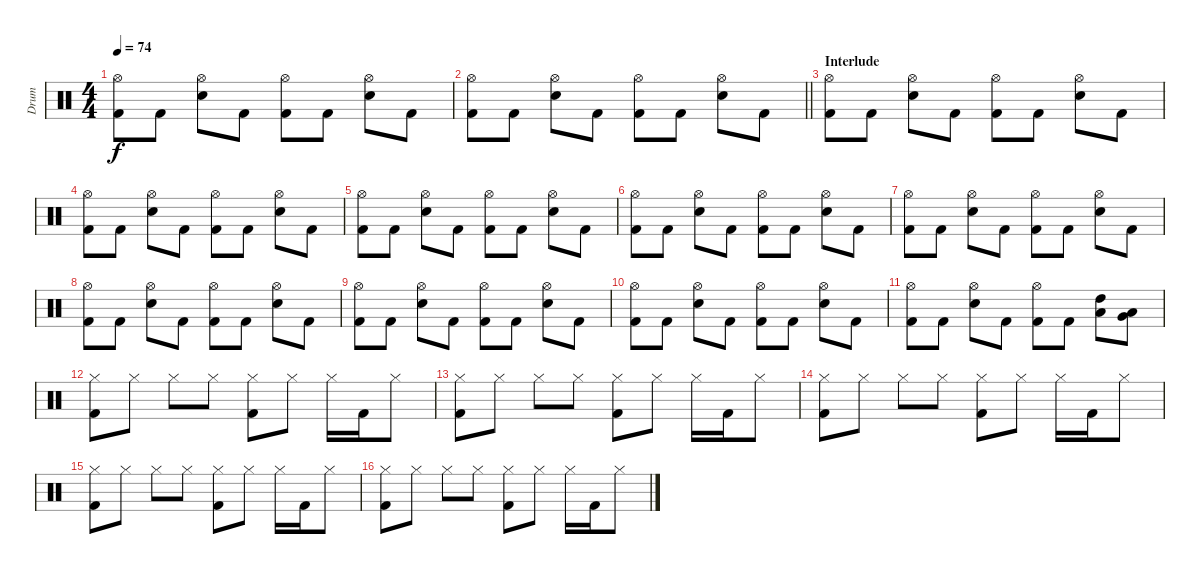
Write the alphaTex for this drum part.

\track ("Drum" "Drum") {instrument percussion}
\staff {score}
\articulation defaults
\ts (4 4)
\tempo 74
\clef neutral
\ks c
("Hi-Hat (open)" "Kick (hit) 2").8{dy f} "Kick (hit) 2".8 ("Snare (hit) 2" "Hi-Hat (open)").8 "Kick (hit) 2".8 ("Kick (hit) 2" "Hi-Hat (open)").8 "Kick (hit) 2".8 ("Snare (hit) 2" "Hi-Hat (open)").8 "Kick (hit) 2".8 |
\barLineRight lightlight
("Hi-Hat (open)" "Kick (hit) 2").8 "Kick (hit) 2".8 ("Snare (hit) 2" "Hi-Hat (open)").8 "Kick (hit) 2".8 ("Kick (hit) 2" "Hi-Hat (open)").8 "Kick (hit) 2".8 ("Snare (hit) 2" "Hi-Hat (open)").8 "Kick (hit) 2".8 |
\section ("" "Interlude")
("Hi-Hat (open)" "Kick (hit) 2").8 "Kick (hit) 2".8 ("Snare (hit) 2" "Hi-Hat (open)").8 "Kick (hit) 2".8 ("Kick (hit) 2" "Hi-Hat (open)").8 "Kick (hit) 2".8 ("Snare (hit) 2" "Hi-Hat (open)").8 "Kick (hit) 2".8 |
("Hi-Hat (open)" "Kick (hit) 2").8 "Kick (hit) 2".8 ("Snare (hit) 2" "Hi-Hat (open)").8 "Kick (hit) 2".8 ("Kick (hit) 2" "Hi-Hat (open)").8 "Kick (hit) 2".8 ("Snare (hit) 2" "Hi-Hat (open)").8 "Kick (hit) 2".8 |
("Hi-Hat (open)" "Kick (hit) 2").8 "Kick (hit) 2".8 ("Snare (hit) 2" "Hi-Hat (open)").8 "Kick (hit) 2".8 ("Kick (hit) 2" "Hi-Hat (open)").8 "Kick (hit) 2".8 ("Snare (hit) 2" "Hi-Hat (open)").8 "Kick (hit) 2".8 |
("Hi-Hat (open)" "Kick (hit) 2").8 "Kick (hit) 2".8 ("Snare (hit) 2" "Hi-Hat (open)").8 "Kick (hit) 2".8 ("Kick (hit) 2" "Hi-Hat (open)").8 "Kick (hit) 2".8 ("Snare (hit) 2" "Hi-Hat (open)").8 "Kick (hit) 2".8 |
("Hi-Hat (open)" "Kick (hit) 2").8 "Kick (hit) 2".8 ("Snare (hit) 2" "Hi-Hat (open)").8 "Kick (hit) 2".8 ("Kick (hit) 2" "Hi-Hat (open)").8 "Kick (hit) 2".8 ("Snare (hit) 2" "Hi-Hat (open)").8 "Kick (hit) 2".8 |
("Hi-Hat (open)" "Kick (hit) 2").8 "Kick (hit) 2".8 ("Snare (hit) 2" "Hi-Hat (open)").8 "Kick (hit) 2".8 ("Kick (hit) 2" "Hi-Hat (open)").8 "Kick (hit) 2".8 ("Snare (hit) 2" "Hi-Hat (open)").8 "Kick (hit) 2".8 |
("Hi-Hat (open)" "Kick (hit) 2").8 "Kick (hit) 2".8 ("Snare (hit) 2" "Hi-Hat (open)").8 "Kick (hit) 2".8 ("Kick (hit) 2" "Hi-Hat (open)").8 "Kick (hit) 2".8 ("Snare (hit) 2" "Hi-Hat (open)").8 "Kick (hit) 2".8 |
("Hi-Hat (open)" "Kick (hit) 2").8 "Kick (hit) 2".8 ("Snare (hit) 2" "Hi-Hat (open)").8 "Kick (hit) 2".8 ("Kick (hit) 2" "Hi-Hat (open)").8 "Kick (hit) 2".8 ("Snare (hit) 2" "Hi-Hat (open)").8 "Kick (hit) 2".8 |
("Hi-Hat (open)" "Kick (hit) 2").8 "Kick (hit) 2".8 ("Snare (hit) 2" "Hi-Hat (open)").8 "Kick (hit) 2".8 ("Kick (hit) 2" "Hi-Hat (open)").8 "Kick (hit) 2".8 ("High Tom (hit)" "Low Tom (hit)").8 ("Very Low Tom (hit)" "Low Tom (hit)").8 |
("Kick (hit) 2" "Hi-Hat (closed)").8 "Hi-Hat (closed)".8 "Hi-Hat (closed)".8 "Hi-Hat (closed)".8 ("Hi-Hat (closed)" "Kick (hit) 2").8 "Hi-Hat (closed)".8 "Hi-Hat (closed)".16 "Kick (hit) 2".16 "Hi-Hat (closed)".8 |
("Kick (hit) 2" "Hi-Hat (closed)").8 "Hi-Hat (closed)".8 "Hi-Hat (closed)".8 "Hi-Hat (closed)".8 ("Hi-Hat (closed)" "Kick (hit) 2").8 "Hi-Hat (closed)".8 "Hi-Hat (closed)".16 "Kick (hit) 2".16 "Hi-Hat (closed)".8 |
("Kick (hit) 2" "Hi-Hat (closed)").8 "Hi-Hat (closed)".8 "Hi-Hat (closed)".8 "Hi-Hat (closed)".8 ("Hi-Hat (closed)" "Kick (hit) 2").8 "Hi-Hat (closed)".8 "Hi-Hat (closed)".16 "Kick (hit) 2".16 "Hi-Hat (closed)".8 |
("Kick (hit) 2" "Hi-Hat (closed)").8 "Hi-Hat (closed)".8 "Hi-Hat (closed)".8 "Hi-Hat (closed)".8 ("Hi-Hat (closed)" "Kick (hit) 2").8 "Hi-Hat (closed)".8 "Hi-Hat (closed)".16 "Kick (hit) 2".16 "Hi-Hat (closed)".8 |
("Kick (hit) 2" "Hi-Hat (closed)").8 "Hi-Hat (closed)".8 "Hi-Hat (closed)".8 "Hi-Hat (closed)".8 ("Hi-Hat (closed)" "Kick (hit) 2").8 "Hi-Hat (closed)".8 "Hi-Hat (closed)".16 "Kick (hit) 2".16 "Hi-Hat (closed)".8
